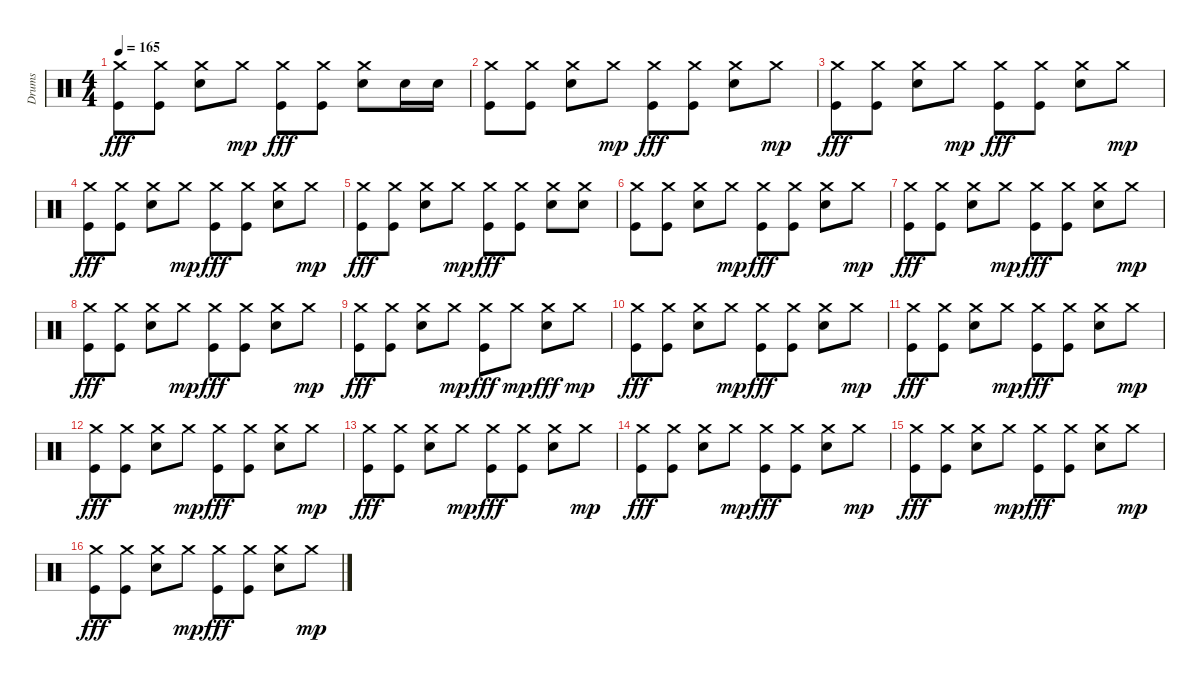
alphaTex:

\track ("Drums" "Drums") {instrument percussion}
\staff {score}
\articulation defaults
\ts (4 4)
\tempo 165
\clef neutral
\ks c
("Crash medium (hit)" "Kick (hit)").8{dy fff} ("Crash medium (hit)" "Kick (hit)").8 ("Crash medium (hit)" "Snare (hit) 2").8 "Crash medium (hit)".8{dy mp} ("Crash medium (hit)" "Kick (hit)").8{dy fff} ("Crash medium (hit)" "Kick (hit)").8 ("Crash medium (hit)" "Snare (hit) 2").8 "Snare (hit) 2".16 "Snare (hit) 2".16 |
("Crash medium (hit)" "Kick (hit)").8 ("Crash medium (hit)" "Kick (hit)").8 ("Crash medium (hit)" "Snare (hit) 2").8 "Crash medium (hit)".8{dy mp} ("Crash medium (hit)" "Kick (hit)").8{dy fff} ("Crash medium (hit)" "Kick (hit)").8 ("Crash medium (hit)" "Snare (hit) 2").8 "Crash medium (hit)".8{dy mp} |
("Crash medium (hit)" "Kick (hit)").8{dy fff} ("Crash medium (hit)" "Kick (hit)").8 ("Crash medium (hit)" "Snare (hit) 2").8 "Crash medium (hit)".8{dy mp} ("Crash medium (hit)" "Kick (hit)").8{dy fff} ("Crash medium (hit)" "Kick (hit)").8 ("Crash medium (hit)" "Snare (hit) 2").8 "Crash medium (hit)".8{dy mp} |
("Crash medium (hit)" "Kick (hit)").8{dy fff} ("Crash medium (hit)" "Kick (hit)").8 ("Crash medium (hit)" "Snare (hit) 2").8 "Crash medium (hit)".8{dy mp} ("Crash medium (hit)" "Kick (hit)").8{dy fff} ("Crash medium (hit)" "Kick (hit)").8 ("Crash medium (hit)" "Snare (hit) 2").8 "Crash medium (hit)".8{dy mp} |
("Crash medium (hit)" "Kick (hit)").8{dy fff} ("Crash medium (hit)" "Kick (hit)").8 ("Crash medium (hit)" "Snare (hit) 2").8 "Crash medium (hit)".8{dy mp} ("Crash medium (hit)" "Kick (hit)").8{dy fff} ("Crash medium (hit)" "Kick (hit)").8 ("Crash medium (hit)" "Snare (hit) 2").8 ("Crash medium (hit)" "Snare (hit) 2").8 |
("Crash medium (hit)" "Kick (hit)").8 ("Crash medium (hit)" "Kick (hit)").8 ("Crash medium (hit)" "Snare (hit) 2").8 "Crash medium (hit)".8{dy mp} ("Crash medium (hit)" "Kick (hit)").8{dy fff} ("Crash medium (hit)" "Kick (hit)").8 ("Crash medium (hit)" "Snare (hit) 2").8 "Crash medium (hit)".8{dy mp} |
("Crash medium (hit)" "Kick (hit)").8{dy fff} ("Crash medium (hit)" "Kick (hit)").8 ("Crash medium (hit)" "Snare (hit) 2").8 "Crash medium (hit)".8{dy mp} ("Crash medium (hit)" "Kick (hit)").8{dy fff} ("Crash medium (hit)" "Kick (hit)").8 ("Crash medium (hit)" "Snare (hit) 2").8 "Crash medium (hit)".8{dy mp} |
("Crash medium (hit)" "Kick (hit)").8{dy fff} ("Crash medium (hit)" "Kick (hit)").8 ("Crash medium (hit)" "Snare (hit) 2").8 "Crash medium (hit)".8{dy mp} ("Crash medium (hit)" "Kick (hit)").8{dy fff} ("Crash medium (hit)" "Kick (hit)").8 ("Crash medium (hit)" "Snare (hit) 2").8 "Crash medium (hit)".8{dy mp} |
("Crash medium (hit)" "Kick (hit)").8{dy fff} ("Crash medium (hit)" "Kick (hit)").8 ("Crash medium (hit)" "Snare (hit) 2").8 "Crash medium (hit)".8{dy mp} ("Crash medium (hit)" "Kick (hit)").8{dy fff} "Crash medium (hit)".8{dy mp} ("Crash medium (hit)" "Snare (hit) 2").8{dy fff} "Crash medium (hit)".8{dy mp} |
("Crash medium (hit)" "Kick (hit)").8{dy fff} ("Crash medium (hit)" "Kick (hit)").8 ("Crash medium (hit)" "Snare (hit) 2").8 "Crash medium (hit)".8{dy mp} ("Crash medium (hit)" "Kick (hit)").8{dy fff} ("Crash medium (hit)" "Kick (hit)").8 ("Crash medium (hit)" "Snare (hit) 2").8 "Crash medium (hit)".8{dy mp} |
("Crash medium (hit)" "Kick (hit)").8{dy fff} ("Crash medium (hit)" "Kick (hit)").8 ("Crash medium (hit)" "Snare (hit) 2").8 "Crash medium (hit)".8{dy mp} ("Crash medium (hit)" "Kick (hit)").8{dy fff} ("Crash medium (hit)" "Kick (hit)").8 ("Crash medium (hit)" "Snare (hit) 2").8 "Crash medium (hit)".8{dy mp} |
("Crash medium (hit)" "Kick (hit)").8{dy fff} ("Crash medium (hit)" "Kick (hit)").8 ("Crash medium (hit)" "Snare (hit) 2").8 "Crash medium (hit)".8{dy mp} ("Crash medium (hit)" "Kick (hit)").8{dy fff} ("Crash medium (hit)" "Kick (hit)").8 ("Crash medium (hit)" "Snare (hit) 2").8 "Crash medium (hit)".8{dy mp} |
("Crash medium (hit)" "Kick (hit)").8{dy fff} ("Crash medium (hit)" "Kick (hit)").8 ("Crash medium (hit)" "Snare (hit) 2").8 "Crash medium (hit)".8{dy mp} ("Crash medium (hit)" "Kick (hit)").8{dy fff} ("Crash medium (hit)" "Kick (hit)").8 ("Crash medium (hit)" "Snare (hit) 2").8 "Crash medium (hit)".8{dy mp} |
("Crash medium (hit)" "Kick (hit)").8{dy fff} ("Crash medium (hit)" "Kick (hit)").8 ("Crash medium (hit)" "Snare (hit) 2").8 "Crash medium (hit)".8{dy mp} ("Crash medium (hit)" "Kick (hit)").8{dy fff} ("Crash medium (hit)" "Kick (hit)").8 ("Crash medium (hit)" "Snare (hit) 2").8 "Crash medium (hit)".8{dy mp} |
("Crash medium (hit)" "Kick (hit)").8{dy fff} ("Crash medium (hit)" "Kick (hit)").8 ("Crash medium (hit)" "Snare (hit) 2").8 "Crash medium (hit)".8{dy mp} ("Crash medium (hit)" "Kick (hit)").8{dy fff} ("Crash medium (hit)" "Kick (hit)").8 ("Crash medium (hit)" "Snare (hit) 2").8 "Crash medium (hit)".8{dy mp} |
("Crash medium (hit)" "Kick (hit)").8{dy fff} ("Crash medium (hit)" "Kick (hit)").8 ("Crash medium (hit)" "Snare (hit) 2").8 "Crash medium (hit)".8{dy mp} ("Crash medium (hit)" "Kick (hit)").8{dy fff} ("Crash medium (hit)" "Kick (hit)").8 ("Crash medium (hit)" "Snare (hit) 2").8 "Crash medium (hit)".8{dy mp}
